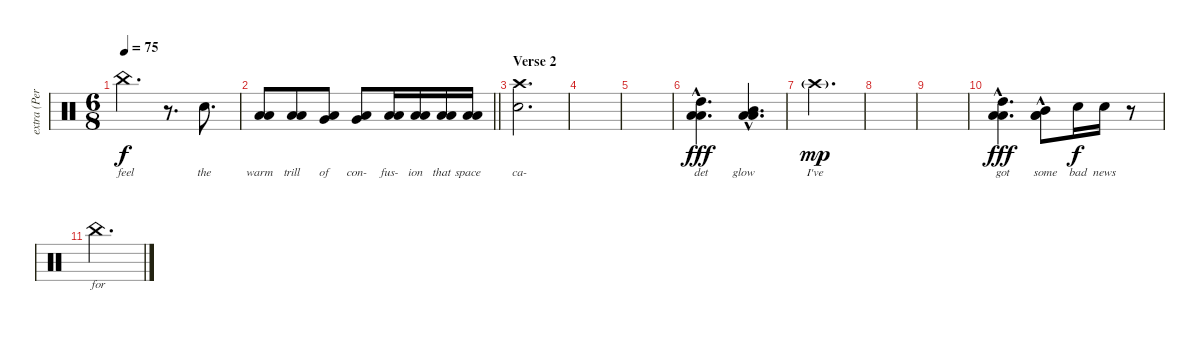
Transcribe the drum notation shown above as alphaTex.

\track ("extra (Percusión)" "extra (Per") {instrument percussion}
\staff {score}
\articulation defaults
\ts (6 8)
\tempo 75
\clef neutral
\ks c "China (hit)".4{d lyrics (0 "feel") lyrics (1 "") lyrics (2 "") lyrics (3 "") lyrics (4 "") dy f}
r.8{d} "Electric Snare (hit)".8{d lyrics (0 "the") lyrics (1 "") lyrics (2 "") lyrics (3 "") lyrics (4 "")} |
\barLineRight lightlight
("Low Tom (hit)" "Low Floor Tom (hit)").8{lyrics (0 "warm") lyrics (1 "") lyrics (2 "") lyrics (3 "") lyrics (4 "")} ("Low Tom (hit)" "Low Floor Tom (hit)").8{lyrics (0 "trill") lyrics (1 "") lyrics (2 "") lyrics (3 "") lyrics (4 "")} ("Very Low Tom (hit)" "Low Floor Tom (hit)").8{lyrics (0 "of") lyrics (1 "") lyrics (2 "") lyrics (3 "") lyrics (4 "")} ("Very Low Tom (hit)" "Low Floor Tom (hit)").8{lyrics (0 "con-") lyrics (1 "") lyrics (2 "") lyrics (3 "") lyrics (4 "")} ("Low Floor Tom (hit)" "Low Floor Tom (hit)").16{lyrics (0 "fus-") lyrics (1 "") lyrics (2 "") lyrics (3 "") lyrics (4 "")} ("Low Floor Tom (hit)" "Low Floor Tom (hit)").16{lyrics (0 "ion") lyrics (1 "") lyrics (2 "") lyrics (3 "") lyrics (4 "")} ("Low Floor Tom (hit)" "Low Tom (hit)").16{lyrics (0 "that") lyrics (1 "") lyrics (2 "") lyrics (3 "") lyrics (4 "")} ("Low Floor Tom (hit)" "Low Floor Tom (hit)").16{lyrics (0 "space") lyrics (1 "") lyrics (2 "") lyrics (3 "") lyrics (4 "")} |
\section ("" "Verse 2")
("Crash high (hit)" "Electric Snare (hit)").2{d lyrics (0 "ca-") lyrics (1 "") lyrics (2 "") lyrics (3 "") lyrics (4 "")} |
|
|
("Low Tom (hit)"{hac} "Low Floor Tom (hit)"{hac} "High Tom (hit)"{hac}).4{d lyrics (0 "det") lyrics (1 "") lyrics (2 "") lyrics (3 "") lyrics (4 "") dy fff} ("Low Floor Tom (hit)"{hac} "Low Tom (hit)"{hac} "Mid Tom (hit)"{hac}).4{d lyrics (0 "glow") lyrics (1 "") lyrics (2 "") lyrics (3 "") lyrics (4 "")} |
"Crash high (hit)"{g}.2{d lyrics (0 "I've") lyrics (1 "") lyrics (2 "") lyrics (3 "") lyrics (4 "") dy mp} |
|
|
("Low Tom (hit)"{hac} "Low Floor Tom (hit)"{hac} "High Tom (hit)"{hac}).4{d lyrics (0 "got") lyrics (1 "") lyrics (2 "") lyrics (3 "") lyrics (4 "") dy fff} ("Low Floor Tom (hit)"{hac} "Low Tom (hit)"{hac} "Mid Tom (hit)"{hac}).8{lyrics (0 "some") lyrics (1 "") lyrics (2 "") lyrics (3 "") lyrics (4 "")} "Electric Snare (hit)".16{lyrics (0 "bad") lyrics (1 "") lyrics (2 "") lyrics (3 "") lyrics (4 "") dy f} "Electric Snare (hit)".16{lyrics (0 "news") lyrics (1 "") lyrics (2 "") lyrics (3 "") lyrics (4 "")} r.8 |
"China (hit)".2{d lyrics (0 "for") lyrics (1 "") lyrics (2 "") lyrics (3 "") lyrics (4 "")}
